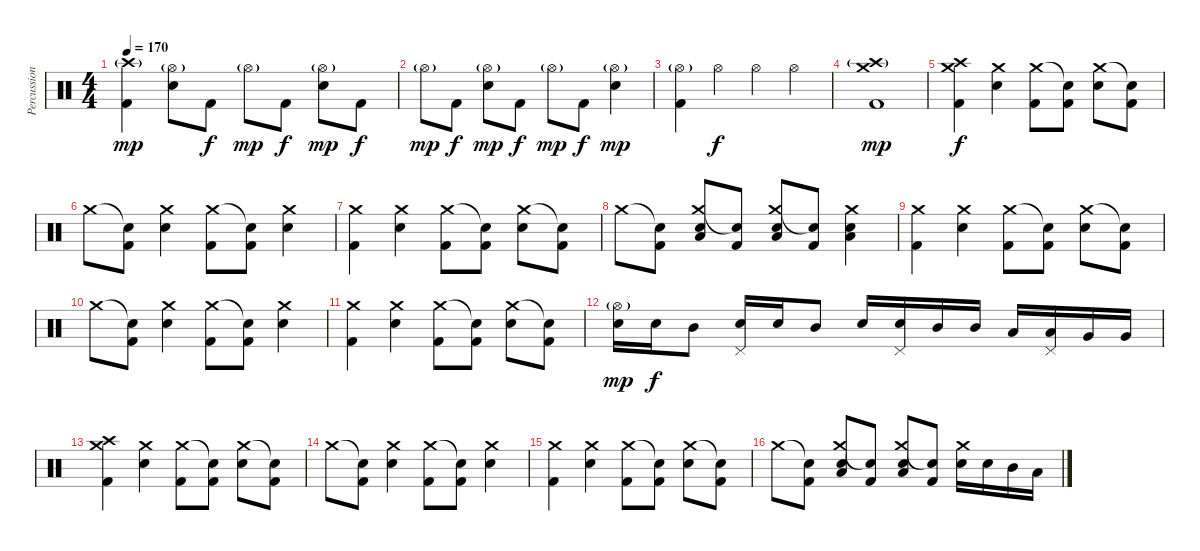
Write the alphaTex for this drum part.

\track ("Percussion" "Percussion") {instrument percussion}
\staff {score}
\articulation defaults
\ts (4 4)
\tempo 170
\clef neutral
\ks c
("Crash high (hit)"{g} "Kick (hit) 2").4{dy mp} ("Hi-Hat (open)"{g} "Electric Snare (hit)").8 "Kick (hit) 2".8{dy f} "Hi-Hat (open)"{g}.8{dy mp} "Kick (hit) 2".8{dy f} ("Hi-Hat (open)"{g} "Electric Snare (hit)").8{dy mp} "Kick (hit) 2".8{dy f} |
"Hi-Hat (open)"{g}.8{dy mp} "Kick (hit) 2".8{dy f} ("Hi-Hat (open)"{g} "Electric Snare (hit)").8{dy mp} "Kick (hit) 2".8{dy f} "Hi-Hat (open)"{g}.8{dy mp} "Kick (hit) 2".8{dy f} ("Hi-Hat (open)"{g} "Electric Snare (hit)").4{dy mp} |
("Hi-Hat (open)"{g} "Kick (hit) 2").4 "Hi-Hat (open)".4{dy f} "Hi-Hat (open)".4 "Hi-Hat (open)".4 |
("Crash medium (hit)" "Crash high (hit)"{g} "Kick (hit) 2").1{dy mp} |
("Crash medium (hit)" "Crash high (hit)" "Kick (hit) 2").4{dy f} ("Crash medium (hit)" "Electric Snare (hit)").4 ("Crash medium (hit)" "Kick (hit) 2").8 ("Snare (hit)"{t} "Kick (hit) 2").8 ("Crash medium (hit)" "Electric Snare (hit)").8 ("Snare (hit)"{t} "Kick (hit) 2").8 |
"Crash medium (hit)".8 ("Snare (hit)"{t} "Kick (hit) 2").8 ("Crash medium (hit)" "Electric Snare (hit)").4 ("Crash medium (hit)" "Kick (hit) 2").8 ("Snare (hit)"{t} "Kick (hit) 2").8 ("Crash medium (hit)" "Electric Snare (hit)").4 |
("Crash medium (hit)" "Kick (hit) 2").4 ("Crash medium (hit)" "Electric Snare (hit)").4 ("Crash medium (hit)" "Kick (hit) 2").8 ("Snare (hit)"{t} "Kick (hit) 2").8 ("Crash medium (hit)" "Electric Snare (hit)").8 ("Snare (hit)"{t} "Kick (hit) 2").8 |
"Crash medium (hit)".8 ("Snare (hit)"{t} "Kick (hit) 2").8 ("Crash medium (hit)" "Low Floor Tom (hit)" "Electric Snare (hit)").8 ("Snare (hit)"{t} "Kick (hit) 2").8 ("Crash medium (hit)" "Low Floor Tom (hit)" "Electric Snare (hit)").8 ("Snare (hit)"{t} "Kick (hit) 2").8 ("Crash medium (hit)" "Low Floor Tom (hit)" "Electric Snare (hit)").4 |
("Crash medium (hit)" "Kick (hit) 2").4 ("Crash medium (hit)" "Electric Snare (hit)").4 ("Crash medium (hit)" "Kick (hit) 2").8 ("Snare (hit)"{t} "Kick (hit) 2").8 ("Crash medium (hit)" "Electric Snare (hit)").8 ("Snare (hit)"{t} "Kick (hit) 2").8 |
"Crash medium (hit)".8 ("Snare (hit)"{t} "Kick (hit) 2").8 ("Crash medium (hit)" "Electric Snare (hit)").4 ("Crash medium (hit)" "Kick (hit) 2").8 ("Snare (hit)"{t} "Kick (hit) 2").8 ("Crash medium (hit)" "Electric Snare (hit)").4 |
("Crash medium (hit)" "Kick (hit) 2").4 ("Crash medium (hit)" "Electric Snare (hit)").4 ("Crash medium (hit)" "Kick (hit) 2").8 ("Snare (hit)"{t} "Kick (hit) 2").8 ("Crash medium (hit)" "Electric Snare (hit)").8 ("Snare (hit)"{t} "Kick (hit) 2").8 |
("Hi-Hat (open)"{g} "Electric Snare (hit)").16{dy mp} "Electric Snare (hit)".16{dy f} "Mid Tom (hit)".8 ("Pedal Hi-Hat (hit)" "Electric Snare (hit)").16 "Electric Snare (hit)".16 "Mid Tom (hit)".8 "Electric Snare (hit)".16 ("Pedal Hi-Hat (hit)" "Electric Snare (hit)").16 "Mid Tom (hit)".16 "Mid Tom (hit)".16 "Low Tom (hit)".16 ("Pedal Hi-Hat (hit)" "Low Tom (hit)").16 "Very Low Tom (hit)".16 "Very Low Tom (hit)".16 |
("Crash medium (hit)" "Crash high (hit)" "Kick (hit) 2").4 ("Crash medium (hit)" "Electric Snare (hit)").4 ("Crash medium (hit)" "Kick (hit) 2").8 ("Snare (hit)"{t} "Kick (hit) 2").8 ("Crash medium (hit)" "Electric Snare (hit)").8 ("Snare (hit)"{t} "Kick (hit) 2").8 |
"Crash medium (hit)".8 ("Snare (hit)"{t} "Kick (hit) 2").8 ("Crash medium (hit)" "Electric Snare (hit)").4 ("Crash medium (hit)" "Kick (hit) 2").8 ("Snare (hit)"{t} "Kick (hit) 2").8 ("Crash medium (hit)" "Electric Snare (hit)").4 |
("Crash medium (hit)" "Kick (hit) 2").4 ("Crash medium (hit)" "Electric Snare (hit)").4 ("Crash medium (hit)" "Kick (hit) 2").8 ("Snare (hit)"{t} "Kick (hit) 2").8 ("Crash medium (hit)" "Electric Snare (hit)").8 ("Snare (hit)"{t} "Kick (hit) 2").8 |
"Crash medium (hit)".8 ("Snare (hit)"{t} "Kick (hit) 2").8 ("Crash medium (hit)" "Low Floor Tom (hit)" "Electric Snare (hit)").8 ("Snare (hit)"{t} "Kick (hit) 2").8 ("Crash medium (hit)" "Low Floor Tom (hit)" "Electric Snare (hit)").8 ("Snare (hit)"{t} "Kick (hit) 2").8 ("Crash medium (hit)" "Electric Snare (hit)").16 "Electric Snare (hit)".16 "Mid Tom (hit)".16 "Low Tom (hit)".16
